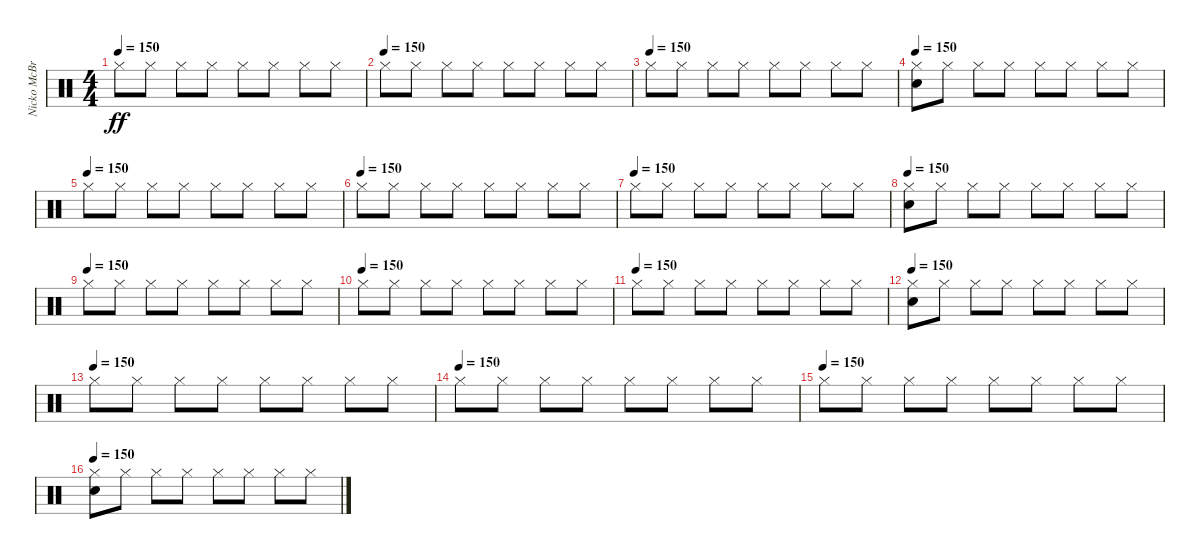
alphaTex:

\track ("Nicko McBrain" "Nicko McBr") {instrument percussion}
\staff {score}
\articulation defaults
\ts (4 4)
\tempo 150
\clef neutral
\ks c "Hi-Hat (closed)".8{dy ff} "Hi-Hat (closed)".8 "Hi-Hat (closed)".8 "Hi-Hat (closed)".8 "Hi-Hat (closed)".8 "Hi-Hat (closed)".8 "Hi-Hat (closed)".8 "Hi-Hat (closed)".8
|
\tempo (150)
"Hi-Hat (closed)".8 "Hi-Hat (closed)".8 "Hi-Hat (closed)".8 "Hi-Hat (closed)".8 "Hi-Hat (closed)".8 "Hi-Hat (closed)".8 "Hi-Hat (closed)".8 "Hi-Hat (closed)".8 |
\tempo (150)
"Hi-Hat (closed)".8 "Hi-Hat (closed)".8 "Hi-Hat (closed)".8 "Hi-Hat (closed)".8 "Hi-Hat (closed)".8 "Hi-Hat (closed)".8 "Hi-Hat (closed)".8 "Hi-Hat (closed)".8 |
\tempo 150
("Snare (hit) 2" "Hi-Hat (closed)").8 "Hi-Hat (closed)".8 "Hi-Hat (closed)".8 "Hi-Hat (closed)".8 "Hi-Hat (closed)".8 "Hi-Hat (closed)".8 "Hi-Hat (closed)".8 "Hi-Hat (closed)".8 |
\tempo (150)
"Hi-Hat (closed)".8 "Hi-Hat (closed)".8 "Hi-Hat (closed)".8 "Hi-Hat (closed)".8 "Hi-Hat (closed)".8 "Hi-Hat (closed)".8 "Hi-Hat (closed)".8 "Hi-Hat (closed)".8 |
\tempo (150)
"Hi-Hat (closed)".8 "Hi-Hat (closed)".8 "Hi-Hat (closed)".8 "Hi-Hat (closed)".8 "Hi-Hat (closed)".8 "Hi-Hat (closed)".8 "Hi-Hat (closed)".8 "Hi-Hat (closed)".8 |
\tempo (150)
"Hi-Hat (closed)".8 "Hi-Hat (closed)".8 "Hi-Hat (closed)".8 "Hi-Hat (closed)".8 "Hi-Hat (closed)".8 "Hi-Hat (closed)".8 "Hi-Hat (closed)".8 "Hi-Hat (closed)".8 |
\tempo 150
("Snare (hit) 2" "Hi-Hat (closed)").8 "Hi-Hat (closed)".8 "Hi-Hat (closed)".8 "Hi-Hat (closed)".8 "Hi-Hat (closed)".8 "Hi-Hat (closed)".8 "Hi-Hat (closed)".8 "Hi-Hat (closed)".8 |
\tempo (150)
"Hi-Hat (closed)".8 "Hi-Hat (closed)".8 "Hi-Hat (closed)".8 "Hi-Hat (closed)".8 "Hi-Hat (closed)".8 "Hi-Hat (closed)".8 "Hi-Hat (closed)".8 "Hi-Hat (closed)".8 |
\tempo (150)
"Hi-Hat (closed)".8 "Hi-Hat (closed)".8 "Hi-Hat (closed)".8 "Hi-Hat (closed)".8 "Hi-Hat (closed)".8 "Hi-Hat (closed)".8 "Hi-Hat (closed)".8 "Hi-Hat (closed)".8 |
\tempo (150)
"Hi-Hat (closed)".8 "Hi-Hat (closed)".8 "Hi-Hat (closed)".8 "Hi-Hat (closed)".8 "Hi-Hat (closed)".8 "Hi-Hat (closed)".8 "Hi-Hat (closed)".8 "Hi-Hat (closed)".8 |
\tempo 150
("Snare (hit) 2" "Hi-Hat (closed)").8 "Hi-Hat (closed)".8 "Hi-Hat (closed)".8 "Hi-Hat (closed)".8 "Hi-Hat (closed)".8 "Hi-Hat (closed)".8 "Hi-Hat (closed)".8 "Hi-Hat (closed)".8 |
\tempo (150)
"Hi-Hat (closed)".8 "Hi-Hat (closed)".8 "Hi-Hat (closed)".8 "Hi-Hat (closed)".8 "Hi-Hat (closed)".8 "Hi-Hat (closed)".8 "Hi-Hat (closed)".8 "Hi-Hat (closed)".8 |
\tempo (150)
"Hi-Hat (closed)".8 "Hi-Hat (closed)".8 "Hi-Hat (closed)".8 "Hi-Hat (closed)".8 "Hi-Hat (closed)".8 "Hi-Hat (closed)".8 "Hi-Hat (closed)".8 "Hi-Hat (closed)".8 |
\tempo (150)
"Hi-Hat (closed)".8 "Hi-Hat (closed)".8 "Hi-Hat (closed)".8 "Hi-Hat (closed)".8 "Hi-Hat (closed)".8 "Hi-Hat (closed)".8 "Hi-Hat (closed)".8 "Hi-Hat (closed)".8 |
\tempo 150
("Snare (hit) 2" "Hi-Hat (closed)").8 "Hi-Hat (closed)".8 "Hi-Hat (closed)".8 "Hi-Hat (closed)".8 "Hi-Hat (closed)".8 "Hi-Hat (closed)".8 "Hi-Hat (closed)".8 "Hi-Hat (closed)".8
